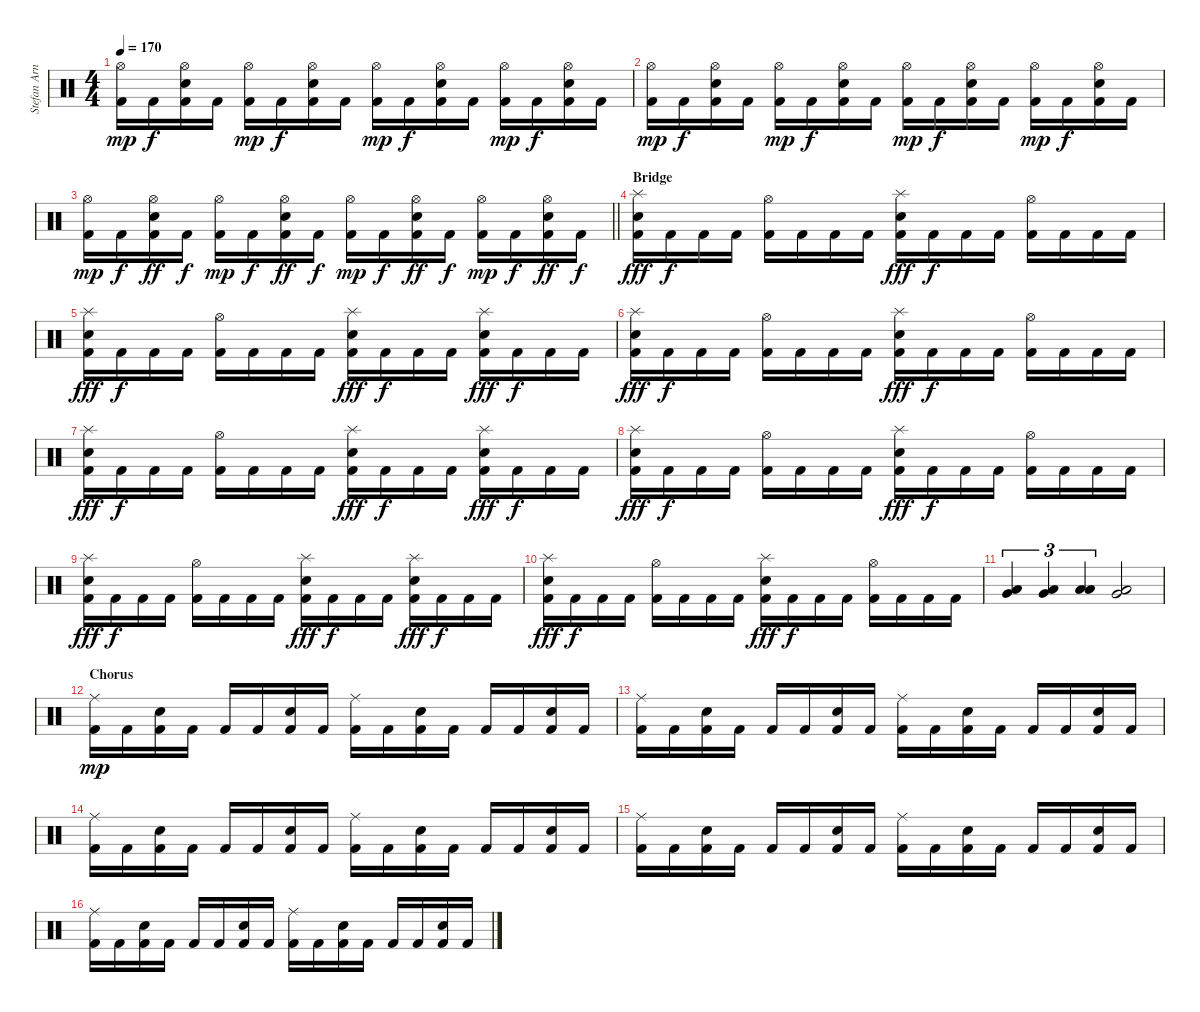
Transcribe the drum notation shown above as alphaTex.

\track ("Stefan Arnold" "Stefan Arn") {instrument percussion}
\staff {score}
\articulation defaults
\ts (4 4)
\tempo 170
\clef neutral
\ks c
("Hi-Hat (open)" "Kick (hit) 2").16{dy mp} "Kick (hit) 2".16{dy f} ("Hi-Hat (open)" "Electric Snare (hit)" "Kick (hit) 2").16 "Kick (hit) 2".16 ("Hi-Hat (open)" "Kick (hit) 2").16{dy mp} "Kick (hit) 2".16{dy f} ("Hi-Hat (open)" "Electric Snare (hit)" "Kick (hit) 2").16 "Kick (hit) 2".16 ("Hi-Hat (open)" "Kick (hit) 2").16{dy mp} "Kick (hit) 2".16{dy f} ("Hi-Hat (open)" "Electric Snare (hit)" "Kick (hit) 2").16 "Kick (hit) 2".16 ("Hi-Hat (open)" "Kick (hit) 2").16{dy mp} "Kick (hit) 2".16{dy f} ("Hi-Hat (open)" "Electric Snare (hit)" "Kick (hit) 2").16 "Kick (hit) 2".16 |
("Hi-Hat (open)" "Kick (hit) 2").16{dy mp} "Kick (hit) 2".16{dy f} ("Hi-Hat (open)" "Electric Snare (hit)" "Kick (hit) 2").16 "Kick (hit) 2".16 ("Hi-Hat (open)" "Kick (hit) 2").16{dy mp} "Kick (hit) 2".16{dy f} ("Hi-Hat (open)" "Electric Snare (hit)" "Kick (hit) 2").16 "Kick (hit) 2".16 ("Hi-Hat (open)" "Kick (hit) 2").16{dy mp} "Kick (hit) 2".16{dy f} ("Hi-Hat (open)" "Electric Snare (hit)" "Kick (hit) 2").16 "Kick (hit) 2".16 ("Hi-Hat (open)" "Kick (hit) 2").16{dy mp} "Kick (hit) 2".16{dy f} ("Hi-Hat (open)" "Electric Snare (hit)" "Kick (hit) 2").16 "Kick (hit) 2".16 |
\barLineRight lightlight
("Hi-Hat (open)" "Kick (hit) 2").16{dy mp} "Kick (hit) 2".16{dy f} ("Hi-Hat (open)" "Electric Snare (hit)" "Kick (hit) 2").16{dy ff} "Kick (hit) 2".16{dy f} ("Hi-Hat (open)" "Kick (hit) 2").16{dy mp} "Kick (hit) 2".16{dy f} ("Hi-Hat (open)" "Electric Snare (hit)" "Kick (hit) 2").16{dy ff} "Kick (hit) 2".16{dy f} ("Hi-Hat (open)" "Kick (hit) 2").16{dy mp} "Kick (hit) 2".16{dy f} ("Hi-Hat (open)" "Electric Snare (hit)" "Kick (hit) 2").16{dy ff} "Kick (hit) 2".16{dy f} ("Hi-Hat (open)" "Kick (hit) 2").16{dy mp} "Kick (hit) 2".16{dy f} ("Hi-Hat (open)" "Electric Snare (hit)" "Kick (hit) 2").16{dy ff} "Kick (hit) 2".16{dy f} |
\section ("" "Bridge")
("Splash (hit)" "Electric Snare (hit)" "Kick (hit) 2").16{dy fff} "Kick (hit) 2".16{dy f} "Kick (hit) 2".16 "Kick (hit) 2".16 ("Hi-Hat (open)" "Kick (hit) 2").16 "Kick (hit) 2".16 "Kick (hit) 2".16 "Kick (hit) 2".16 ("Splash (hit)" "Electric Snare (hit)" "Kick (hit) 2").16{dy fff} "Kick (hit) 2".16{dy f} "Kick (hit) 2".16 "Kick (hit) 2".16 ("Hi-Hat (open)" "Kick (hit) 2").16 "Kick (hit) 2".16 "Kick (hit) 2".16 "Kick (hit) 2".16 |
("Splash (hit)" "Electric Snare (hit)" "Kick (hit) 2").16{dy fff} "Kick (hit) 2".16{dy f} "Kick (hit) 2".16 "Kick (hit) 2".16 ("Hi-Hat (open)" "Kick (hit) 2").16 "Kick (hit) 2".16 "Kick (hit) 2".16 "Kick (hit) 2".16 ("Splash (hit)" "Electric Snare (hit)" "Kick (hit) 2").16{dy fff} "Kick (hit) 2".16{dy f} "Kick (hit) 2".16 "Kick (hit) 2".16 ("Splash (hit)" "Electric Snare (hit)" "Kick (hit) 2").16{dy fff} "Kick (hit) 2".16{dy f} "Kick (hit) 2".16 "Kick (hit) 2".16 |
("Splash (hit)" "Electric Snare (hit)" "Kick (hit) 2").16{dy fff} "Kick (hit) 2".16{dy f} "Kick (hit) 2".16 "Kick (hit) 2".16 ("Hi-Hat (open)" "Kick (hit) 2").16 "Kick (hit) 2".16 "Kick (hit) 2".16 "Kick (hit) 2".16 ("Splash (hit)" "Electric Snare (hit)" "Kick (hit) 2").16{dy fff} "Kick (hit) 2".16{dy f} "Kick (hit) 2".16 "Kick (hit) 2".16 ("Hi-Hat (open)" "Kick (hit) 2").16 "Kick (hit) 2".16 "Kick (hit) 2".16 "Kick (hit) 2".16 |
("Splash (hit)" "Electric Snare (hit)" "Kick (hit) 2").16{dy fff} "Kick (hit) 2".16{dy f} "Kick (hit) 2".16 "Kick (hit) 2".16 ("Hi-Hat (open)" "Kick (hit) 2").16 "Kick (hit) 2".16 "Kick (hit) 2".16 "Kick (hit) 2".16 ("Splash (hit)" "Electric Snare (hit)" "Kick (hit) 2").16{dy fff} "Kick (hit) 2".16{dy f} "Kick (hit) 2".16 "Kick (hit) 2".16 ("Splash (hit)" "Electric Snare (hit)" "Kick (hit) 2").16{dy fff} "Kick (hit) 2".16{dy f} "Kick (hit) 2".16 "Kick (hit) 2".16 |
("Splash (hit)" "Electric Snare (hit)" "Kick (hit) 2").16{dy fff} "Kick (hit) 2".16{dy f} "Kick (hit) 2".16 "Kick (hit) 2".16 ("Hi-Hat (open)" "Kick (hit) 2").16 "Kick (hit) 2".16 "Kick (hit) 2".16 "Kick (hit) 2".16 ("Splash (hit)" "Electric Snare (hit)" "Kick (hit) 2").16{dy fff} "Kick (hit) 2".16{dy f} "Kick (hit) 2".16 "Kick (hit) 2".16 ("Hi-Hat (open)" "Kick (hit) 2").16 "Kick (hit) 2".16 "Kick (hit) 2".16 "Kick (hit) 2".16 |
("Splash (hit)" "Electric Snare (hit)" "Kick (hit) 2").16{dy fff} "Kick (hit) 2".16{dy f} "Kick (hit) 2".16 "Kick (hit) 2".16 ("Hi-Hat (open)" "Kick (hit) 2").16 "Kick (hit) 2".16 "Kick (hit) 2".16 "Kick (hit) 2".16 ("Splash (hit)" "Electric Snare (hit)" "Kick (hit) 2").16{dy fff} "Kick (hit) 2".16{dy f} "Kick (hit) 2".16 "Kick (hit) 2".16 ("Splash (hit)" "Electric Snare (hit)" "Kick (hit) 2").16{dy fff} "Kick (hit) 2".16{dy f} "Kick (hit) 2".16 "Kick (hit) 2".16 |
("Splash (hit)" "Electric Snare (hit)" "Kick (hit) 2").16{dy fff} "Kick (hit) 2".16{dy f} "Kick (hit) 2".16 "Kick (hit) 2".16 ("Hi-Hat (open)" "Kick (hit) 2").16 "Kick (hit) 2".16 "Kick (hit) 2".16 "Kick (hit) 2".16 ("Splash (hit)" "Electric Snare (hit)" "Kick (hit) 2").16{dy fff} "Kick (hit) 2".16{dy f} "Kick (hit) 2".16 "Kick (hit) 2".16 ("Hi-Hat (open)" "Kick (hit) 2").16 "Kick (hit) 2".16 "Kick (hit) 2".16 "Kick (hit) 2".16 |
("Low Tom (hit)" "Very Low Tom (hit)").4{tu (3 2)} ("Very Low Tom (hit)" "Low Floor Tom (hit)").4{tu (3 2)} ("Low Floor Tom (hit)" "Low Floor Tom (hit)").4{tu (3 2)} ("Very Low Tom (hit)" "Low Floor Tom (hit)").2 |
\section ("" "Chorus")
("Ride (middle)" "Kick (hit) 2").16{dy mp} "Kick (hit) 2".16 ("Electric Snare (hit)" "Kick (hit) 2").16 "Kick (hit) 2".16 "Kick (hit) 2".16 "Kick (hit) 2".16 ("Electric Snare (hit)" "Kick (hit) 2").16 "Kick (hit) 2".16 ("Ride (middle)" "Kick (hit) 2").16 "Kick (hit) 2".16 ("Electric Snare (hit)" "Kick (hit) 2").16 "Kick (hit) 2".16 "Kick (hit) 2".16 "Kick (hit) 2".16 ("Electric Snare (hit)" "Kick (hit) 2").16 "Kick (hit) 2".16 |
("Ride (middle)" "Kick (hit) 2").16 "Kick (hit) 2".16 ("Electric Snare (hit)" "Kick (hit) 2").16 "Kick (hit) 2".16 "Kick (hit) 2".16 "Kick (hit) 2".16 ("Electric Snare (hit)" "Kick (hit) 2").16 "Kick (hit) 2".16 ("Ride (middle)" "Kick (hit) 2").16 "Kick (hit) 2".16 ("Electric Snare (hit)" "Kick (hit) 2").16 "Kick (hit) 2".16 "Kick (hit) 2".16 "Kick (hit) 2".16 ("Electric Snare (hit)" "Kick (hit) 2").16 "Kick (hit) 2".16 |
("Ride (middle)" "Kick (hit) 2").16 "Kick (hit) 2".16 ("Electric Snare (hit)" "Kick (hit) 2").16 "Kick (hit) 2".16 "Kick (hit) 2".16 "Kick (hit) 2".16 ("Electric Snare (hit)" "Kick (hit) 2").16 "Kick (hit) 2".16 ("Ride (middle)" "Kick (hit) 2").16 "Kick (hit) 2".16 ("Electric Snare (hit)" "Kick (hit) 2").16 "Kick (hit) 2".16 "Kick (hit) 2".16 "Kick (hit) 2".16 ("Electric Snare (hit)" "Kick (hit) 2").16 "Kick (hit) 2".16 |
("Ride (middle)" "Kick (hit) 2").16 "Kick (hit) 2".16 ("Electric Snare (hit)" "Kick (hit) 2").16 "Kick (hit) 2".16 "Kick (hit) 2".16 "Kick (hit) 2".16 ("Electric Snare (hit)" "Kick (hit) 2").16 "Kick (hit) 2".16 ("Ride (middle)" "Kick (hit) 2").16 "Kick (hit) 2".16 ("Electric Snare (hit)" "Kick (hit) 2").16 "Kick (hit) 2".16 "Kick (hit) 2".16 "Kick (hit) 2".16 ("Electric Snare (hit)" "Kick (hit) 2").16 "Kick (hit) 2".16 |
("Ride (middle)" "Kick (hit) 2").16 "Kick (hit) 2".16 ("Electric Snare (hit)" "Kick (hit) 2").16 "Kick (hit) 2".16 "Kick (hit) 2".16 "Kick (hit) 2".16 ("Electric Snare (hit)" "Kick (hit) 2").16 "Kick (hit) 2".16 ("Ride (middle)" "Kick (hit) 2").16 "Kick (hit) 2".16 ("Electric Snare (hit)" "Kick (hit) 2").16 "Kick (hit) 2".16 "Kick (hit) 2".16 "Kick (hit) 2".16 ("Electric Snare (hit)" "Kick (hit) 2").16 "Kick (hit) 2".16
